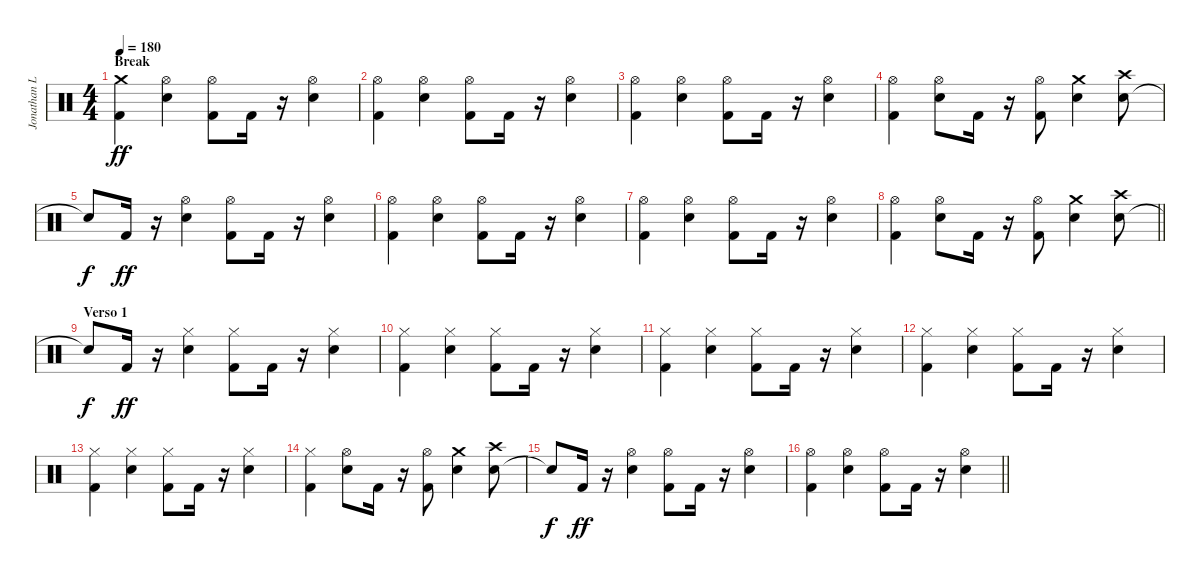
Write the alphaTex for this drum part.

\track ("Jonathan Lòpez" "Jonathan L") {instrument percussion}
\staff {score}
\articulation defaults
\ts (4 4)
\section ("" "Break")
\tempo 180
\clef neutral
\ks c
("Kick (hit) 2" "Crash medium (hit)").4{dy ff} ("Electric Snare (hit)" "Hi-Hat (open)").4 ("Kick (hit) 2" "Hi-Hat (open)").8 "Kick (hit) 2".16 r.16 ("Electric Snare (hit)" "Hi-Hat (open)").4 |
("Hi-Hat (open)" "Kick (hit) 2").4 ("Hi-Hat (open)" "Electric Snare (hit)").4 ("Hi-Hat (open)" "Kick (hit) 2").8 "Kick (hit) 2".16 r.16 ("Hi-Hat (open)" "Electric Snare (hit)").4 |
("Kick (hit) 2" "Hi-Hat (open)").4 ("Electric Snare (hit)" "Hi-Hat (open)").4 ("Kick (hit) 2" "Hi-Hat (open)").8 "Kick (hit) 2".16 r.16 ("Electric Snare (hit)" "Hi-Hat (open)").4 |
("Kick (hit) 2" "Hi-Hat (open)").4 ("Electric Snare (hit)" "Hi-Hat (open)").8 "Kick (hit) 2".16 r.16 ("Kick (hit) 2" "Hi-Hat (open)").8 ("Electric Snare (hit)" "Crash medium (hit)").4 ("Electric Snare (hit)" "Crash high (hit)").8 |
"Snare (hit)"{t}.8{dy f} "Kick (hit) 2".16{dy ff} r.16 ("Electric Snare (hit)" "Hi-Hat (open)").4 ("Kick (hit) 2" "Hi-Hat (open)").8 "Kick (hit) 2".16 r.16 ("Electric Snare (hit)" "Hi-Hat (open)").4 |
("Kick (hit) 2" "Hi-Hat (open)").4 ("Electric Snare (hit)" "Hi-Hat (open)").4 ("Kick (hit) 2" "Hi-Hat (open)").8 "Kick (hit) 2".16 r.16 ("Electric Snare (hit)" "Hi-Hat (open)").4 |
("Kick (hit) 2" "Hi-Hat (open)").4 ("Electric Snare (hit)" "Hi-Hat (open)").4 ("Kick (hit) 2" "Hi-Hat (open)").8 "Kick (hit) 2".16 r.16 ("Electric Snare (hit)" "Hi-Hat (open)").4 |
\barLineRight lightlight
("Kick (hit) 2" "Hi-Hat (open)").4 ("Electric Snare (hit)" "Hi-Hat (open)").8 "Kick (hit) 2".16 r.16 ("Kick (hit) 2" "Hi-Hat (open)").8 ("Electric Snare (hit)" "Crash medium (hit)").4 ("Electric Snare (hit)" "Crash high (hit)").8 |
\section ("" "Verso 1")
"Snare (hit)"{t}.8{dy f} "Kick (hit) 2".16{dy ff} r.16 ("Electric Snare (hit)" "Hi-Hat (closed)").4 ("Kick (hit) 2" "Hi-Hat (closed)").8 "Kick (hit) 2".16 r.16 ("Electric Snare (hit)" "Hi-Hat (closed)").4 |
("Kick (hit) 2" "Hi-Hat (closed)").4 ("Electric Snare (hit)" "Hi-Hat (closed)").4 ("Kick (hit) 2" "Hi-Hat (closed)").8 "Kick (hit) 2".16 r.16 ("Electric Snare (hit)" "Hi-Hat (closed)").4 |
("Kick (hit) 2" "Hi-Hat (closed)").4 ("Electric Snare (hit)" "Hi-Hat (closed)").4 ("Kick (hit) 2" "Hi-Hat (closed)").8 "Kick (hit) 2".16 r.16 ("Electric Snare (hit)" "Hi-Hat (closed)").4 |
("Hi-Hat (closed)" "Kick (hit) 2").4 ("Hi-Hat (closed)" "Electric Snare (hit)").4 ("Hi-Hat (closed)" "Kick (hit) 2").8 "Kick (hit) 2".16 r.16 ("Hi-Hat (closed)" "Electric Snare (hit)").4 |
("Kick (hit) 2" "Hi-Hat (closed)").4 ("Electric Snare (hit)" "Hi-Hat (closed)").4 ("Kick (hit) 2" "Hi-Hat (closed)").8 "Kick (hit) 2".16 r.16 ("Electric Snare (hit)" "Hi-Hat (closed)").4 |
("Kick (hit) 2" "Hi-Hat (closed)").4 ("Electric Snare (hit)" "Hi-Hat (open)").8 "Kick (hit) 2".16 r.16 ("Kick (hit) 2" "Hi-Hat (open)").8 ("Electric Snare (hit)" "Crash medium (hit)").4 ("Electric Snare (hit)" "Crash high (hit)").8 |
"Snare (hit)"{t}.8{dy f} "Kick (hit) 2".16{dy ff} r.16 ("Electric Snare (hit)" "Hi-Hat (open)").4 ("Kick (hit) 2" "Hi-Hat (open)").8 "Kick (hit) 2".16 r.16 ("Electric Snare (hit)" "Hi-Hat (open)").4 |
\barLineRight lightlight
("Kick (hit) 2" "Hi-Hat (open)").4 ("Electric Snare (hit)" "Hi-Hat (open)").4 ("Kick (hit) 2" "Hi-Hat (open)").8 "Kick (hit) 2".16 r.16 ("Electric Snare (hit)" "Hi-Hat (open)").4
